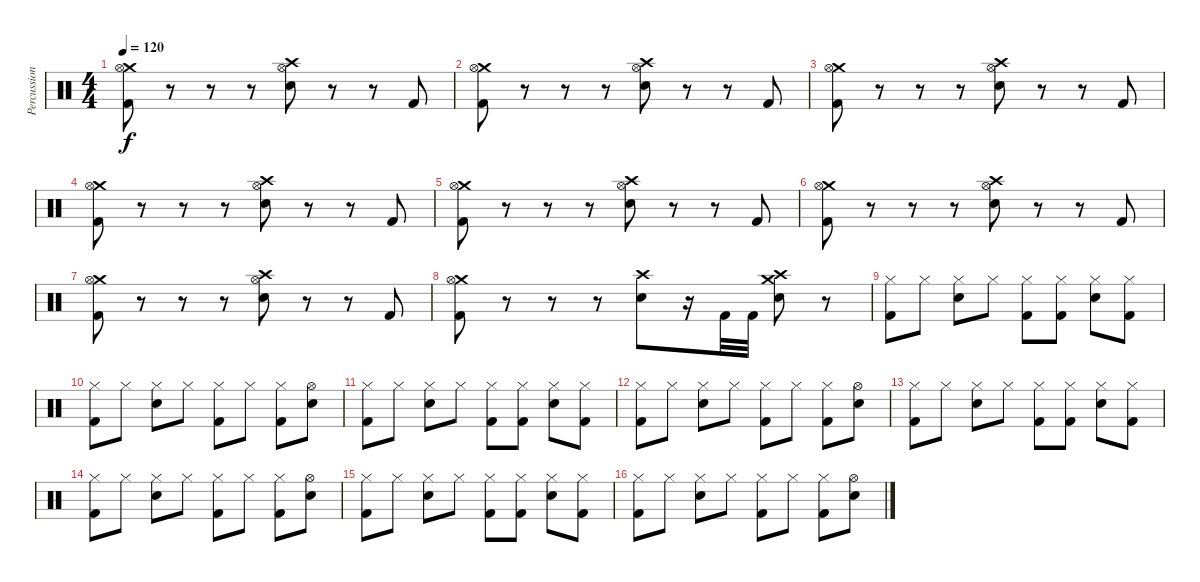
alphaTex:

\track ("Percussion" "Percussion") {instrument percussion}
\staff {score}
\articulation defaults
\ts (4 4)
\tempo 120
\clef neutral
\ks c
("Crash medium (hit)" "Hi-Hat (open)" "Kick (hit) 2").8{dy f} r.8 r.8 r.8 ("Crash high (hit)" "Hi-Hat (open)" "Snare (hit) 2").8 r.8 r.8 "Kick (hit) 2".8 |
("Crash medium (hit)" "Hi-Hat (open)" "Kick (hit) 2").8 r.8 r.8 r.8 ("Crash high (hit)" "Hi-Hat (open)" "Snare (hit) 2").8 r.8 r.8 "Kick (hit) 2".8 |
("Crash medium (hit)" "Hi-Hat (open)" "Kick (hit) 2").8 r.8 r.8 r.8 ("Crash high (hit)" "Hi-Hat (open)" "Snare (hit) 2").8 r.8 r.8 "Kick (hit) 2".8 |
("Crash medium (hit)" "Hi-Hat (open)" "Kick (hit) 2").8 r.8 r.8 r.8 ("Crash high (hit)" "Hi-Hat (open)" "Snare (hit) 2").8 r.8 r.8 "Kick (hit) 2".8 |
("Crash medium (hit)" "Hi-Hat (open)" "Kick (hit) 2").8 r.8 r.8 r.8 ("Crash high (hit)" "Hi-Hat (open)" "Snare (hit) 2").8 r.8 r.8 "Kick (hit) 2".8 |
("Crash medium (hit)" "Hi-Hat (open)" "Kick (hit) 2").8 r.8 r.8 r.8 ("Crash high (hit)" "Hi-Hat (open)" "Snare (hit) 2").8 r.8 r.8 "Kick (hit) 2".8 |
("Crash medium (hit)" "Hi-Hat (open)" "Kick (hit) 2").8 r.8 r.8 r.8 ("Crash high (hit)" "Hi-Hat (open)" "Snare (hit) 2").8 r.8 r.8 "Kick (hit) 2".8 |
("Crash medium (hit)" "Hi-Hat (open)" "Kick (hit) 2").8 r.8 r.8 r.8 ("Crash high (hit)" "Snare (hit) 2").8 r.16 "Kick (hit) 2".32 "Kick (hit) 2".32 ("Crash medium (hit)" "Crash high (hit)" "Snare (hit) 2").8 r.8 |
("Hi-Hat (closed)" "Kick (hit) 2").8 "Hi-Hat (closed)".8 ("Hi-Hat (closed)" "Snare (hit) 2").8 "Hi-Hat (closed)".8 ("Hi-Hat (closed)" "Kick (hit) 2").8 ("Hi-Hat (closed)" "Kick (hit) 2").8 ("Hi-Hat (closed)" "Snare (hit) 2").8 ("Hi-Hat (closed)" "Kick (hit) 2").8 |
("Hi-Hat (closed)" "Kick (hit) 2").8 "Hi-Hat (closed)".8 ("Hi-Hat (closed)" "Snare (hit) 2").8 "Hi-Hat (closed)".8 ("Hi-Hat (closed)" "Kick (hit) 2").8 "Hi-Hat (closed)".8 ("Hi-Hat (closed)" "Kick (hit) 2").8 ("Hi-Hat (open)" "Snare (hit) 2").8 |
("Hi-Hat (closed)" "Kick (hit) 2").8 "Hi-Hat (closed)".8 ("Hi-Hat (closed)" "Snare (hit) 2").8 "Hi-Hat (closed)".8 ("Hi-Hat (closed)" "Kick (hit) 2").8 ("Hi-Hat (closed)" "Kick (hit) 2").8 ("Hi-Hat (closed)" "Snare (hit) 2").8 ("Hi-Hat (closed)" "Kick (hit) 2").8 |
("Hi-Hat (closed)" "Kick (hit) 2").8 "Hi-Hat (closed)".8 ("Hi-Hat (closed)" "Snare (hit) 2").8 "Hi-Hat (closed)".8 ("Hi-Hat (closed)" "Kick (hit) 2").8 "Hi-Hat (closed)".8 ("Hi-Hat (closed)" "Kick (hit) 2").8 ("Hi-Hat (open)" "Snare (hit) 2").8 |
("Hi-Hat (closed)" "Kick (hit) 2").8 "Hi-Hat (closed)".8 ("Hi-Hat (closed)" "Snare (hit) 2").8 "Hi-Hat (closed)".8 ("Hi-Hat (closed)" "Kick (hit) 2").8 ("Hi-Hat (closed)" "Kick (hit) 2").8 ("Hi-Hat (closed)" "Snare (hit) 2").8 ("Hi-Hat (closed)" "Kick (hit) 2").8 |
("Hi-Hat (closed)" "Kick (hit) 2").8 "Hi-Hat (closed)".8 ("Hi-Hat (closed)" "Snare (hit) 2").8 "Hi-Hat (closed)".8 ("Hi-Hat (closed)" "Kick (hit) 2").8 "Hi-Hat (closed)".8 ("Hi-Hat (closed)" "Kick (hit) 2").8 ("Hi-Hat (open)" "Snare (hit) 2").8 |
("Hi-Hat (closed)" "Kick (hit) 2").8 "Hi-Hat (closed)".8 ("Hi-Hat (closed)" "Snare (hit) 2").8 "Hi-Hat (closed)".8 ("Hi-Hat (closed)" "Kick (hit) 2").8 ("Hi-Hat (closed)" "Kick (hit) 2").8 ("Hi-Hat (closed)" "Snare (hit) 2").8 ("Hi-Hat (closed)" "Kick (hit) 2").8 |
("Hi-Hat (closed)" "Kick (hit) 2").8 "Hi-Hat (closed)".8 ("Hi-Hat (closed)" "Snare (hit) 2").8 "Hi-Hat (closed)".8 ("Hi-Hat (closed)" "Kick (hit) 2").8 "Hi-Hat (closed)".8 ("Hi-Hat (closed)" "Kick (hit) 2").8 ("Hi-Hat (open)" "Snare (hit) 2").8
